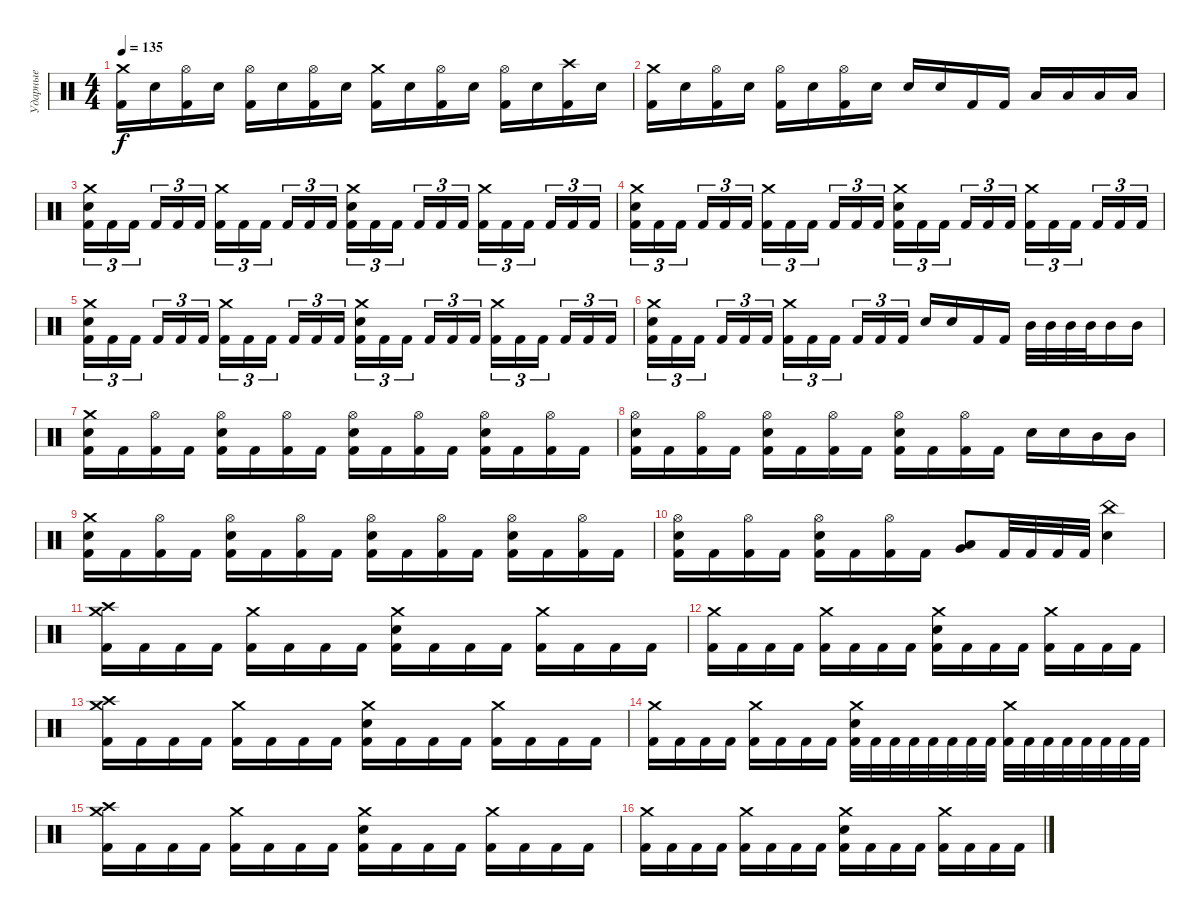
\track ("Ударные" "Ударные") {instrument percussion}
\staff {score}
\articulation defaults
\ts (4 4)
\tempo 135
\clef neutral
\ks c
("Crash medium (hit)" "Kick (hit) 2").16{dy f} "Electric Snare (hit)".16 ("Hi-Hat (open)" "Kick (hit) 2").16 "Electric Snare (hit)".16 ("Hi-Hat (open)" "Kick (hit) 2").16 "Electric Snare (hit)".16 ("Hi-Hat (open)" "Kick (hit) 2").16 "Electric Snare (hit)".16 ("Crash medium (hit)" "Kick (hit) 2").16 "Electric Snare (hit)".16 ("Hi-Hat (open)" "Kick (hit) 2").16 "Electric Snare (hit)".16 ("Hi-Hat (open)" "Kick (hit) 2").16 "Electric Snare (hit)".16 ("Crash high (hit)" "Kick (hit) 2").16 "Electric Snare (hit)".16 |
("Crash medium (hit)" "Kick (hit) 2").16 "Electric Snare (hit)".16 ("Hi-Hat (open)" "Kick (hit) 2").16 "Electric Snare (hit)".16 ("Hi-Hat (open)" "Kick (hit) 2").16 "Electric Snare (hit)".16 ("Hi-Hat (open)" "Kick (hit) 2").16 "Electric Snare (hit)".16 "Electric Snare (hit)".16 "Electric Snare (hit)".16 "Kick (hit) 2".16 "Kick (hit) 2".16 "Low Tom (hit)".16 "Low Tom (hit)".16 "Low Tom (hit)".16 "Low Tom (hit)".16 |
("Crash medium (hit)" "Electric Snare (hit)" "Kick (hit) 2").16{tu (3 2)} "Kick (hit) 2".16{tu (3 2)} "Kick (hit) 2".16{tu (3 2) beam splitsecondary} "Kick (hit) 2".16{tu (3 2)} "Kick (hit) 2".16{tu (3 2)} "Kick (hit) 2".16{tu (3 2)} ("Crash medium (hit)" "Kick (hit) 2").16{tu (3 2)} "Kick (hit) 2".16{tu (3 2)} "Kick (hit) 2".16{tu (3 2) beam splitsecondary} "Kick (hit) 2".16{tu (3 2)} "Kick (hit) 2".16{tu (3 2)} "Kick (hit) 2".16{tu (3 2)} ("Crash medium (hit)" "Electric Snare (hit)" "Kick (hit) 2").16{tu (3 2)} "Kick (hit) 2".16{tu (3 2)} "Kick (hit) 2".16{tu (3 2) beam splitsecondary} "Kick (hit) 2".16{tu (3 2)} "Kick (hit) 2".16{tu (3 2)} "Kick (hit) 2".16{tu (3 2)} ("Crash medium (hit)" "Kick (hit) 2").16{tu (3 2)} "Kick (hit) 2".16{tu (3 2)} "Kick (hit) 2".16{tu (3 2) beam splitsecondary} "Kick (hit) 2".16{tu (3 2)} "Kick (hit) 2".16{tu (3 2)} "Kick (hit) 2".16{tu (3 2)} |
("Crash medium (hit)" "Electric Snare (hit)" "Kick (hit) 2").16{tu (3 2)} "Kick (hit) 2".16{tu (3 2)} "Kick (hit) 2".16{tu (3 2) beam splitsecondary} "Kick (hit) 2".16{tu (3 2)} "Kick (hit) 2".16{tu (3 2)} "Kick (hit) 2".16{tu (3 2)} ("Crash medium (hit)" "Kick (hit) 2").16{tu (3 2)} "Kick (hit) 2".16{tu (3 2)} "Kick (hit) 2".16{tu (3 2) beam splitsecondary} "Kick (hit) 2".16{tu (3 2)} "Kick (hit) 2".16{tu (3 2)} "Kick (hit) 2".16{tu (3 2)} ("Crash medium (hit)" "Electric Snare (hit)" "Kick (hit) 2").16{tu (3 2)} "Kick (hit) 2".16{tu (3 2)} "Kick (hit) 2".16{tu (3 2) beam splitsecondary} "Kick (hit) 2".16{tu (3 2)} "Kick (hit) 2".16{tu (3 2)} "Kick (hit) 2".16{tu (3 2)} ("Crash medium (hit)" "Kick (hit) 2").16{tu (3 2)} "Kick (hit) 2".16{tu (3 2)} "Kick (hit) 2".16{tu (3 2) beam splitsecondary} "Kick (hit) 2".16{tu (3 2)} "Kick (hit) 2".16{tu (3 2)} "Kick (hit) 2".16{tu (3 2)} |
("Crash medium (hit)" "Electric Snare (hit)" "Kick (hit) 2").16{tu (3 2)} "Kick (hit) 2".16{tu (3 2)} "Kick (hit) 2".16{tu (3 2) beam splitsecondary} "Kick (hit) 2".16{tu (3 2)} "Kick (hit) 2".16{tu (3 2)} "Kick (hit) 2".16{tu (3 2)} ("Crash medium (hit)" "Kick (hit) 2").16{tu (3 2)} "Kick (hit) 2".16{tu (3 2)} "Kick (hit) 2".16{tu (3 2) beam splitsecondary} "Kick (hit) 2".16{tu (3 2)} "Kick (hit) 2".16{tu (3 2)} "Kick (hit) 2".16{tu (3 2)} ("Crash medium (hit)" "Electric Snare (hit)" "Kick (hit) 2").16{tu (3 2)} "Kick (hit) 2".16{tu (3 2)} "Kick (hit) 2".16{tu (3 2) beam splitsecondary} "Kick (hit) 2".16{tu (3 2)} "Kick (hit) 2".16{tu (3 2)} "Kick (hit) 2".16{tu (3 2)} ("Crash medium (hit)" "Kick (hit) 2").16{tu (3 2)} "Kick (hit) 2".16{tu (3 2)} "Kick (hit) 2".16{tu (3 2) beam splitsecondary} "Kick (hit) 2".16{tu (3 2)} "Kick (hit) 2".16{tu (3 2)} "Kick (hit) 2".16{tu (3 2)} |
("Crash medium (hit)" "Electric Snare (hit)" "Kick (hit) 2").16{tu (3 2)} "Kick (hit) 2".16{tu (3 2)} "Kick (hit) 2".16{tu (3 2) beam splitsecondary} "Kick (hit) 2".16{tu (3 2)} "Kick (hit) 2".16{tu (3 2)} "Kick (hit) 2".16{tu (3 2)} ("Crash medium (hit)" "Kick (hit) 2").16{tu (3 2)} "Kick (hit) 2".16{tu (3 2)} "Kick (hit) 2".16{tu (3 2) beam splitsecondary} "Kick (hit) 2".16{tu (3 2)} "Kick (hit) 2".16{tu (3 2)} "Kick (hit) 2".16{tu (3 2)} "Electric Snare (hit)".16 "Electric Snare (hit)".16 "Kick (hit) 2".16 "Kick (hit) 2".16 "Mid Tom (hit)".32 "Mid Tom (hit)".32 "Mid Tom (hit)".32 "Mid Tom (hit)".32 "Mid Tom (hit)".16 "Mid Tom (hit)".16 |
("Crash medium (hit)" "Electric Snare (hit)" "Kick (hit) 2").16 "Kick (hit) 2".16 ("Hi-Hat (open)" "Kick (hit) 2").16 "Kick (hit) 2".16 ("Hi-Hat (open)" "Electric Snare (hit)" "Kick (hit) 2").16 "Kick (hit) 2".16 ("Hi-Hat (open)" "Kick (hit) 2").16 "Kick (hit) 2".16 ("Hi-Hat (open)" "Electric Snare (hit)" "Kick (hit) 2").16 "Kick (hit) 2".16 ("Hi-Hat (open)" "Kick (hit) 2").16 "Kick (hit) 2".16 ("Hi-Hat (open)" "Electric Snare (hit)" "Kick (hit) 2").16 "Kick (hit) 2".16 ("Hi-Hat (open)" "Kick (hit) 2").16 "Kick (hit) 2".16 |
("Hi-Hat (open)" "Electric Snare (hit)" "Kick (hit) 2").16 "Kick (hit) 2".16 ("Hi-Hat (open)" "Kick (hit) 2").16 "Kick (hit) 2".16 ("Hi-Hat (open)" "Electric Snare (hit)" "Kick (hit) 2").16 "Kick (hit) 2".16 ("Hi-Hat (open)" "Kick (hit) 2").16 "Kick (hit) 2".16 ("Hi-Hat (open)" "Electric Snare (hit)" "Kick (hit) 2").16 "Kick (hit) 2".16 ("Hi-Hat (open)" "Kick (hit) 2").16 "Kick (hit) 2".16 "Electric Snare (hit)".16 "Electric Snare (hit)".16 "Mid Tom (hit)".16 "Mid Tom (hit)".16 |
("Crash medium (hit)" "Electric Snare (hit)" "Kick (hit) 2").16 "Kick (hit) 2".16 ("Hi-Hat (open)" "Kick (hit) 2").16 "Kick (hit) 2".16 ("Hi-Hat (open)" "Electric Snare (hit)" "Kick (hit) 2").16 "Kick (hit) 2".16 ("Hi-Hat (open)" "Kick (hit) 2").16 "Kick (hit) 2".16 ("Hi-Hat (open)" "Electric Snare (hit)" "Kick (hit) 2").16 "Kick (hit) 2".16 ("Hi-Hat (open)" "Kick (hit) 2").16 "Kick (hit) 2".16 ("Hi-Hat (open)" "Electric Snare (hit)" "Kick (hit) 2").16 "Kick (hit) 2".16 ("Hi-Hat (open)" "Kick (hit) 2").16 "Kick (hit) 2".16 |
("Hi-Hat (open)" "Electric Snare (hit)" "Kick (hit) 2").16 "Kick (hit) 2".16 ("Hi-Hat (open)" "Kick (hit) 2").16 "Kick (hit) 2".16 ("Hi-Hat (open)" "Electric Snare (hit)" "Kick (hit) 2").16 "Kick (hit) 2".16 ("Hi-Hat (open)" "Kick (hit) 2").16 "Kick (hit) 2".16 ("Low Tom (hit)" "Very Low Tom (hit)").8 "Kick (hit) 2".32 "Kick (hit) 2".32 "Kick (hit) 2".32 "Kick (hit) 2".32 ("China (hit)" "Electric Snare (hit)").4 |
("Crash medium (hit)" "Crash high (hit)" "Kick (hit) 2").16 "Kick (hit) 2".16 "Kick (hit) 2".16 "Kick (hit) 2".16 ("Crash medium (hit)" "Kick (hit) 2").16 "Kick (hit) 2".16 "Kick (hit) 2".16 "Kick (hit) 2".16 ("Crash medium (hit)" "Electric Snare (hit)" "Kick (hit) 2").16 "Kick (hit) 2".16 "Kick (hit) 2".16 "Kick (hit) 2".16 ("Crash medium (hit)" "Kick (hit) 2").16 "Kick (hit) 2".16 "Kick (hit) 2".16 "Kick (hit) 2".16 |
("Crash medium (hit)" "Kick (hit) 2").16 "Kick (hit) 2".16 "Kick (hit) 2".16 "Kick (hit) 2".16 ("Crash medium (hit)" "Kick (hit) 2").16 "Kick (hit) 2".16 "Kick (hit) 2".16 "Kick (hit) 2".16 ("Crash medium (hit)" "Electric Snare (hit)" "Kick (hit) 2").16 "Kick (hit) 2".16 "Kick (hit) 2".16 "Kick (hit) 2".16 ("Crash medium (hit)" "Kick (hit) 2").16 "Kick (hit) 2".16 "Kick (hit) 2".16 "Kick (hit) 2".16 |
("Crash medium (hit)" "Crash high (hit)" "Kick (hit) 2").16 "Kick (hit) 2".16 "Kick (hit) 2".16 "Kick (hit) 2".16 ("Crash medium (hit)" "Kick (hit) 2").16 "Kick (hit) 2".16 "Kick (hit) 2".16 "Kick (hit) 2".16 ("Crash medium (hit)" "Electric Snare (hit)" "Kick (hit) 2").16 "Kick (hit) 2".16 "Kick (hit) 2".16 "Kick (hit) 2".16 ("Crash medium (hit)" "Kick (hit) 2").16 "Kick (hit) 2".16 "Kick (hit) 2".16 "Kick (hit) 2".16 |
("Crash medium (hit)" "Kick (hit) 2").16 "Kick (hit) 2".16 "Kick (hit) 2".16 "Kick (hit) 2".16 ("Crash medium (hit)" "Kick (hit) 2").16 "Kick (hit) 2".16 "Kick (hit) 2".16 "Kick (hit) 2".16 ("Crash medium (hit)" "Electric Snare (hit)" "Kick (hit) 2").32 "Kick (hit) 2".32 "Kick (hit) 2".32 "Kick (hit) 2".32 "Kick (hit) 2".32 "Kick (hit) 2".32 "Kick (hit) 2".32 "Kick (hit) 2".32 ("Crash medium (hit)" "Kick (hit) 2").32 "Kick (hit) 2".32 "Kick (hit) 2".32 "Kick (hit) 2".32 "Kick (hit) 2".32 "Kick (hit) 2".32 "Kick (hit) 2".32 "Kick (hit) 2".32 |
("Crash medium (hit)" "Crash high (hit)" "Kick (hit) 2").16 "Kick (hit) 2".16 "Kick (hit) 2".16 "Kick (hit) 2".16 ("Crash medium (hit)" "Kick (hit) 2").16 "Kick (hit) 2".16 "Kick (hit) 2".16 "Kick (hit) 2".16 ("Crash medium (hit)" "Electric Snare (hit)" "Kick (hit) 2").16 "Kick (hit) 2".16 "Kick (hit) 2".16 "Kick (hit) 2".16 ("Crash medium (hit)" "Kick (hit) 2").16 "Kick (hit) 2".16 "Kick (hit) 2".16 "Kick (hit) 2".16 |
("Crash medium (hit)" "Kick (hit) 2").16 "Kick (hit) 2".16 "Kick (hit) 2".16 "Kick (hit) 2".16 ("Crash medium (hit)" "Kick (hit) 2").16 "Kick (hit) 2".16 "Kick (hit) 2".16 "Kick (hit) 2".16 ("Crash medium (hit)" "Electric Snare (hit)" "Kick (hit) 2").16 "Kick (hit) 2".16 "Kick (hit) 2".16 "Kick (hit) 2".16 ("Crash medium (hit)" "Kick (hit) 2").16 "Kick (hit) 2".16 "Kick (hit) 2".16 "Kick (hit) 2".16
